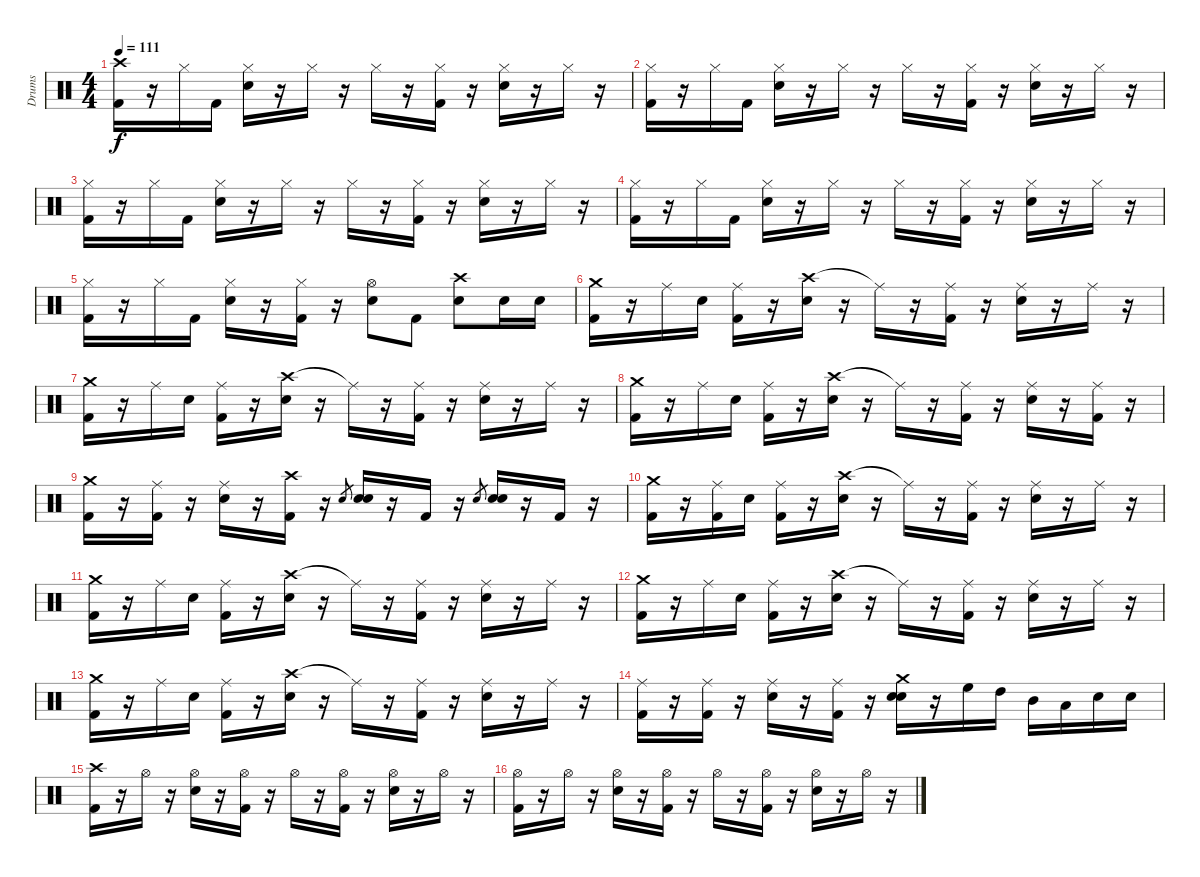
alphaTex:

\track ("Drums" "Drums") {instrument percussion}
\staff {score}
\articulation defaults
\ts (4 4)
\tempo 111
\clef neutral
\ks c
("Crash high (hit)" "Kick (hit) 2").16{dy f} r.16 "Hi-Hat (closed)".16 "Kick (hit) 2".16 ("Hi-Hat (closed)" "Snare (hit) 2").16 r.16 "Hi-Hat (closed)".16 r.16 "Hi-Hat (closed)".16 r.16 ("Hi-Hat (closed)" "Kick (hit) 2").16 r.16 ("Hi-Hat (closed)" "Snare (hit) 2").16 r.16 "Hi-Hat (closed)".16 r.16 |
("Hi-Hat (closed)" "Kick (hit) 2").16 r.16 "Hi-Hat (closed)".16 "Kick (hit) 2".16 ("Hi-Hat (closed)" "Snare (hit) 2").16 r.16 "Hi-Hat (closed)".16 r.16 "Hi-Hat (closed)".16 r.16 ("Hi-Hat (closed)" "Kick (hit) 2").16 r.16 ("Hi-Hat (closed)" "Snare (hit) 2").16 r.16 "Hi-Hat (closed)".16 r.16 |
("Hi-Hat (closed)" "Kick (hit) 2").16 r.16 "Hi-Hat (closed)".16 "Kick (hit) 2".16 ("Hi-Hat (closed)" "Snare (hit) 2").16 r.16 "Hi-Hat (closed)".16 r.16 "Hi-Hat (closed)".16 r.16 ("Hi-Hat (closed)" "Kick (hit) 2").16 r.16 ("Hi-Hat (closed)" "Snare (hit) 2").16 r.16 "Hi-Hat (closed)".16 r.16 |
("Hi-Hat (closed)" "Kick (hit) 2").16 r.16 "Hi-Hat (closed)".16 "Kick (hit) 2".16 ("Hi-Hat (closed)" "Snare (hit) 2").16 r.16 "Hi-Hat (closed)".16 r.16 "Hi-Hat (closed)".16 r.16 ("Hi-Hat (closed)" "Kick (hit) 2").16 r.16 ("Hi-Hat (closed)" "Snare (hit) 2").16 r.16 "Hi-Hat (closed)".16 r.16 |
("Hi-Hat (closed)" "Kick (hit) 2").16 r.16 "Hi-Hat (closed)".16 "Kick (hit) 2".16 ("Hi-Hat (closed)" "Snare (hit) 2").16 r.16 ("Hi-Hat (closed)" "Kick (hit) 2").16 r.16 ("Hi-Hat (open)" "Snare (hit) 2").8 "Kick (hit) 2".8 ("Crash high (hit)" "Snare (hit) 2").8 "Snare (hit) 2".16 "Snare (hit) 2".16 |
("Crash medium (hit)" "Kick (hit) 2").16 r.16 "Ride (middle)".16 "Snare (hit) 2".16 ("Ride (middle)" "Kick (hit) 2").16 r.16 ("Crash high (hit)" "Snare (hit) 2").16 r.16 "Ride (middle)"{t}.16 r.16 ("Ride (middle)" "Kick (hit) 2").16 r.16 ("Ride (middle)" "Snare (hit) 2").16 r.16 "Ride (middle)".16 r.16 |
("Crash medium (hit)" "Kick (hit) 2").16 r.16 "Ride (middle)".16 "Snare (hit) 2".16 ("Ride (middle)" "Kick (hit) 2").16 r.16 ("Crash high (hit)" "Snare (hit) 2").16 r.16 "Ride (middle)"{t}.16 r.16 ("Ride (middle)" "Kick (hit) 2").16 r.16 ("Ride (middle)" "Snare (hit) 2").16 r.16 "Ride (middle)".16 r.16 |
("Crash medium (hit)" "Kick (hit) 2").16 r.16 "Ride (middle)".16 "Snare (hit) 2".16 ("Ride (middle)" "Kick (hit) 2").16 r.16 ("Crash high (hit)" "Snare (hit) 2").16 r.16 "Ride (middle)"{t}.16 r.16 ("Ride (middle)" "Kick (hit) 2").16 r.16 ("Ride (middle)" "Snare (hit) 2").16 r.16 ("Ride (middle)" "Kick (hit) 2").16 r.16 |
("Crash medium (hit)" "Kick (hit) 2").16 r.16 ("Ride (middle)" "Kick (hit) 2").16 r.16 ("Ride (middle)" "Snare (hit) 2").16 r.16 ("Crash high (hit)" "Kick (hit) 2").16 r.16 "Snare (hit) 2".8{gr} ("Snare (hit) 2" "Snare (hit) 2").16 r.16 "Kick (hit) 2".16 r.16 "Snare (hit) 2".8{gr} ("Snare (hit) 2" "Snare (hit) 2").16 r.16 "Kick (hit) 2".16 r.16 |
("Crash medium (hit)" "Kick (hit) 2").16 r.16 ("Ride (middle)" "Kick (hit) 2").16 "Snare (hit) 2".16 ("Ride (middle)" "Kick (hit) 2").16 r.16 ("Crash high (hit)" "Snare (hit) 2").16 r.16 "Ride (middle)"{t}.16 r.16 ("Ride (middle)" "Kick (hit) 2").16 r.16 ("Ride (middle)" "Snare (hit) 2").16 r.16 "Ride (middle)".16 r.16 |
("Crash medium (hit)" "Kick (hit) 2").16 r.16 "Ride (middle)".16 "Snare (hit) 2".16 ("Ride (middle)" "Kick (hit) 2").16 r.16 ("Crash high (hit)" "Snare (hit) 2").16 r.16 "Ride (middle)"{t}.16 r.16 ("Ride (middle)" "Kick (hit) 2").16 r.16 ("Ride (middle)" "Snare (hit) 2").16 r.16 "Ride (middle)".16 r.16 |
("Crash medium (hit)" "Kick (hit) 2").16 r.16 "Ride (middle)".16 "Snare (hit) 2".16 ("Ride (middle)" "Kick (hit) 2").16 r.16 ("Crash high (hit)" "Snare (hit) 2").16 r.16 "Ride (middle)"{t}.16 r.16 ("Ride (middle)" "Kick (hit) 2").16 r.16 ("Ride (middle)" "Snare (hit) 2").16 r.16 "Ride (middle)".16 r.16 |
("Crash medium (hit)" "Kick (hit) 2").16 r.16 "Ride (middle)".16 "Snare (hit) 2".16 ("Ride (middle)" "Kick (hit) 2").16 r.16 ("Crash high (hit)" "Snare (hit) 2").16 r.16 "Ride (middle)"{t}.16 r.16 ("Ride (middle)" "Kick (hit) 2").16 r.16 ("Ride (middle)" "Snare (hit) 2").16 r.16 "Ride (middle)".16 r.16 |
("Ride (middle)" "Kick (hit) 2").16 r.16 ("Ride (middle)" "Kick (hit) 2").16 r.16 ("Ride (middle)" "Snare (hit) 2").16 r.16 ("Ride (middle)" "Kick (hit) 2").16 r.16 ("Crash medium (hit)" "Snare (hit) 2" "Snare (hit) 2").16 r.16 "High Floor Tom (hit)".16 "High Tom (hit)".16 "Mid Tom (hit)".16 "Low Tom (hit)".16 "Snare (hit) 2".16 "Snare (hit) 2".16 |
("Crash high (hit)" "Kick (hit) 2").16 r.16 "Hi-Hat (open)".16 r.16 ("Hi-Hat (open)" "Snare (hit) 2").16 r.16 ("Hi-Hat (open)" "Kick (hit) 2").16 r.16 "Hi-Hat (open)".16 r.16 ("Hi-Hat (open)" "Kick (hit) 2").16 r.16 ("Hi-Hat (open)" "Snare (hit) 2").16 r.16 "Hi-Hat (open)".16 r.16 |
("Hi-Hat (open)" "Kick (hit) 2").16 r.16 "Hi-Hat (open)".16 r.16 ("Hi-Hat (open)" "Snare (hit) 2").16 r.16 ("Hi-Hat (open)" "Kick (hit) 2").16 r.16 "Hi-Hat (open)".16 r.16 ("Hi-Hat (open)" "Kick (hit) 2").16 r.16 ("Hi-Hat (open)" "Snare (hit) 2").16 r.16 "Hi-Hat (open)".16 r.16
